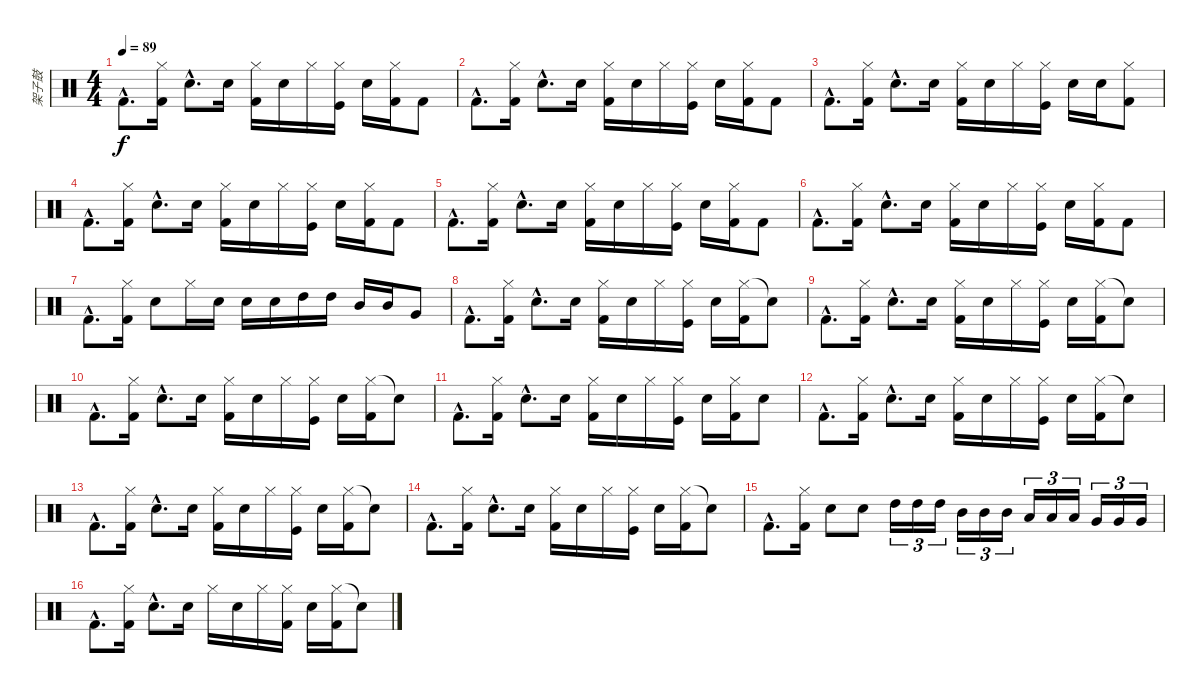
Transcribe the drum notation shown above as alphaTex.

\track ("架子鼓" "架子鼓") {instrument percussion}
\staff {score}
\articulation defaults
\ts (4 4)
\tempo 89
\clef neutral
\ks c "Kick (hit) 2"{hac}.8{d dy f}
("Hi-Hat (closed)" "Kick (hit) 2").16 "Snare (hit) 2"{hac}.8{d} "Snare (hit) 2".16 ("Hi-Hat (closed)" "Kick (hit) 2").16 "Snare (hit) 2".16 "Hi-Hat (closed)".16 ("Hi-Hat (closed)" "Kick (hit)").16 "Snare (hit) 2".16 ("Hi-Hat (closed)" "Kick (hit) 2").16 "Kick (hit) 2".8 |
"Kick (hit) 2"{hac}.8{d} ("Hi-Hat (closed)" "Kick (hit) 2").16 "Snare (hit) 2"{hac}.8{d} "Snare (hit) 2".16 ("Hi-Hat (closed)" "Kick (hit) 2").16 "Snare (hit) 2".16 "Hi-Hat (closed)".16 ("Hi-Hat (closed)" "Kick (hit)").16 "Snare (hit) 2".16 ("Hi-Hat (closed)" "Kick (hit) 2").16 "Kick (hit) 2".8 |
"Kick (hit) 2"{hac}.8{d} ("Hi-Hat (closed)" "Kick (hit) 2").16 "Snare (hit) 2"{hac}.8{d} "Snare (hit) 2".16 ("Hi-Hat (closed)" "Kick (hit) 2").16 "Snare (hit) 2".16 "Hi-Hat (closed)".16 ("Hi-Hat (closed)" "Kick (hit)").16 "Snare (hit) 2".16 "Snare (hit) 2".16 ("Hi-Hat (closed)" "Kick (hit) 2").8 |
"Kick (hit) 2"{hac}.8{d} ("Hi-Hat (closed)" "Kick (hit) 2").16 "Snare (hit) 2"{hac}.8{d} "Snare (hit) 2".16 ("Hi-Hat (closed)" "Kick (hit) 2").16 "Snare (hit) 2".16 "Hi-Hat (closed)".16 ("Hi-Hat (closed)" "Kick (hit)").16 "Snare (hit) 2".16 ("Hi-Hat (closed)" "Kick (hit) 2").16 "Kick (hit) 2".8 |
"Kick (hit) 2"{hac}.8{d} ("Hi-Hat (closed)" "Kick (hit) 2").16 "Snare (hit) 2"{hac}.8{d} "Snare (hit) 2".16 ("Hi-Hat (closed)" "Kick (hit) 2").16 "Snare (hit) 2".16 "Hi-Hat (closed)".16 ("Hi-Hat (closed)" "Kick (hit)").16 "Snare (hit) 2".16 ("Hi-Hat (closed)" "Kick (hit) 2").16 "Kick (hit) 2".8 |
"Kick (hit) 2"{hac}.8{d} ("Hi-Hat (closed)" "Kick (hit) 2").16 "Snare (hit) 2"{hac}.8{d} "Snare (hit) 2".16 ("Hi-Hat (closed)" "Kick (hit) 2").16 "Snare (hit) 2".16 "Hi-Hat (closed)".16 ("Hi-Hat (closed)" "Kick (hit)").16 "Snare (hit) 2".16 ("Hi-Hat (closed)" "Kick (hit) 2").16 "Kick (hit) 2".8 |
"Kick (hit) 2"{hac}.8{d} ("Hi-Hat (closed)" "Kick (hit) 2").16 "Snare (hit) 2".8 "Hi-Hat (closed)".16 "Snare (hit) 2".16 "Snare (hit) 2".16 "Snare (hit) 2".16 "High Tom (hit)".16 "High Tom (hit)".16 "Mid Tom (hit)".16 "Mid Tom (hit)".16 "Very Low Tom (hit)".8 |
"Kick (hit) 2"{hac}.8{d} ("Hi-Hat (closed)" "Kick (hit) 2").16 "Snare (hit) 2"{hac}.8{d} "Snare (hit) 2".16 ("Hi-Hat (closed)" "Kick (hit) 2").16 "Snare (hit) 2".16 "Hi-Hat (closed)".16 ("Hi-Hat (closed)" "Kick (hit)").16 "Snare (hit) 2".16 ("Hi-Hat (closed)" "Kick (hit) 2").16 "Snare (hit)"{t}.8 |
"Kick (hit) 2"{hac}.8{d} ("Hi-Hat (closed)" "Kick (hit) 2").16 "Snare (hit) 2"{hac}.8{d} "Snare (hit) 2".16 ("Hi-Hat (closed)" "Kick (hit) 2").16 "Snare (hit) 2".16 "Hi-Hat (closed)".16 ("Hi-Hat (closed)" "Kick (hit)").16 "Snare (hit) 2".16 ("Hi-Hat (closed)" "Kick (hit) 2").16 "Snare (hit)"{t}.8 |
"Kick (hit) 2"{hac}.8{d} ("Hi-Hat (closed)" "Kick (hit) 2").16 "Snare (hit) 2"{hac}.8{d} "Snare (hit) 2".16 ("Hi-Hat (closed)" "Kick (hit) 2").16 "Snare (hit) 2".16 "Hi-Hat (closed)".16 ("Hi-Hat (closed)" "Kick (hit)").16 "Snare (hit) 2".16 ("Hi-Hat (closed)" "Kick (hit) 2").16 "Snare (hit)"{t}.8 |
"Kick (hit) 2"{hac}.8{d} ("Hi-Hat (closed)" "Kick (hit) 2").16 "Snare (hit) 2"{hac}.8{d} "Snare (hit) 2".16 ("Hi-Hat (closed)" "Kick (hit) 2").16 "Snare (hit) 2".16 "Hi-Hat (closed)".16 ("Hi-Hat (closed)" "Kick (hit)").16 "Snare (hit) 2".16 ("Hi-Hat (closed)" "Kick (hit) 2").16 "Snare (hit) 2".8 |
"Kick (hit) 2"{hac}.8{d} ("Hi-Hat (closed)" "Kick (hit) 2").16 "Snare (hit) 2"{hac}.8{d} "Snare (hit) 2".16 ("Hi-Hat (closed)" "Kick (hit) 2").16 "Snare (hit) 2".16 "Hi-Hat (closed)".16 ("Hi-Hat (closed)" "Kick (hit)").16 "Snare (hit) 2".16 ("Hi-Hat (closed)" "Kick (hit) 2").16 "Snare (hit)"{t}.8 |
"Kick (hit) 2"{hac}.8{d} ("Hi-Hat (closed)" "Kick (hit) 2").16 "Snare (hit) 2"{hac}.8{d} "Snare (hit) 2".16 ("Hi-Hat (closed)" "Kick (hit) 2").16 "Snare (hit) 2".16 "Hi-Hat (closed)".16 ("Hi-Hat (closed)" "Kick (hit)").16 "Snare (hit) 2".16 ("Hi-Hat (closed)" "Kick (hit) 2").16 "Snare (hit)"{t}.8 |
"Kick (hit) 2"{hac}.8{d} ("Hi-Hat (closed)" "Kick (hit) 2").16 "Snare (hit) 2"{hac}.8{d} "Snare (hit) 2".16 ("Hi-Hat (closed)" "Kick (hit) 2").16 "Snare (hit) 2".16 "Hi-Hat (closed)".16 ("Hi-Hat (closed)" "Kick (hit)").16 "Snare (hit) 2".16 ("Hi-Hat (closed)" "Kick (hit) 2").16 "Snare (hit)"{t}.8 |
"Kick (hit) 2"{hac}.8{d} ("Hi-Hat (closed)" "Kick (hit) 2").16 "Snare (hit) 2".8 "Snare (hit) 2".8 "High Tom (hit)".16{tu (3 2)} "High Tom (hit)".16{tu (3 2)} "High Tom (hit)".16{tu (3 2)} "Mid Tom (hit)".16{tu (3 2)} "Mid Tom (hit)".16{tu (3 2)} "Mid Tom (hit)".16{tu (3 2)} "Low Tom (hit)".16{tu (3 2)} "Low Tom (hit)".16{tu (3 2)} "Low Tom (hit)".16{tu (3 2)} "Very Low Tom (hit)".16{tu (3 2)} "Very Low Tom (hit)".16{tu (3 2)} "Very Low Tom (hit)".16{tu (3 2)} |
"Kick (hit) 2"{hac}.8{d} ("Hi-Hat (closed)" "Kick (hit) 2").16 "Snare (hit) 2"{hac}.8{d} "Snare (hit) 2".16 "Hi-Hat (closed)".16 "Snare (hit) 2".16 "Hi-Hat (closed)".16 ("Hi-Hat (closed)" "Kick (hit) 2").16 "Snare (hit) 2".16 ("Hi-Hat (closed)" "Kick (hit) 2").16 "Snare (hit)"{t}.8
